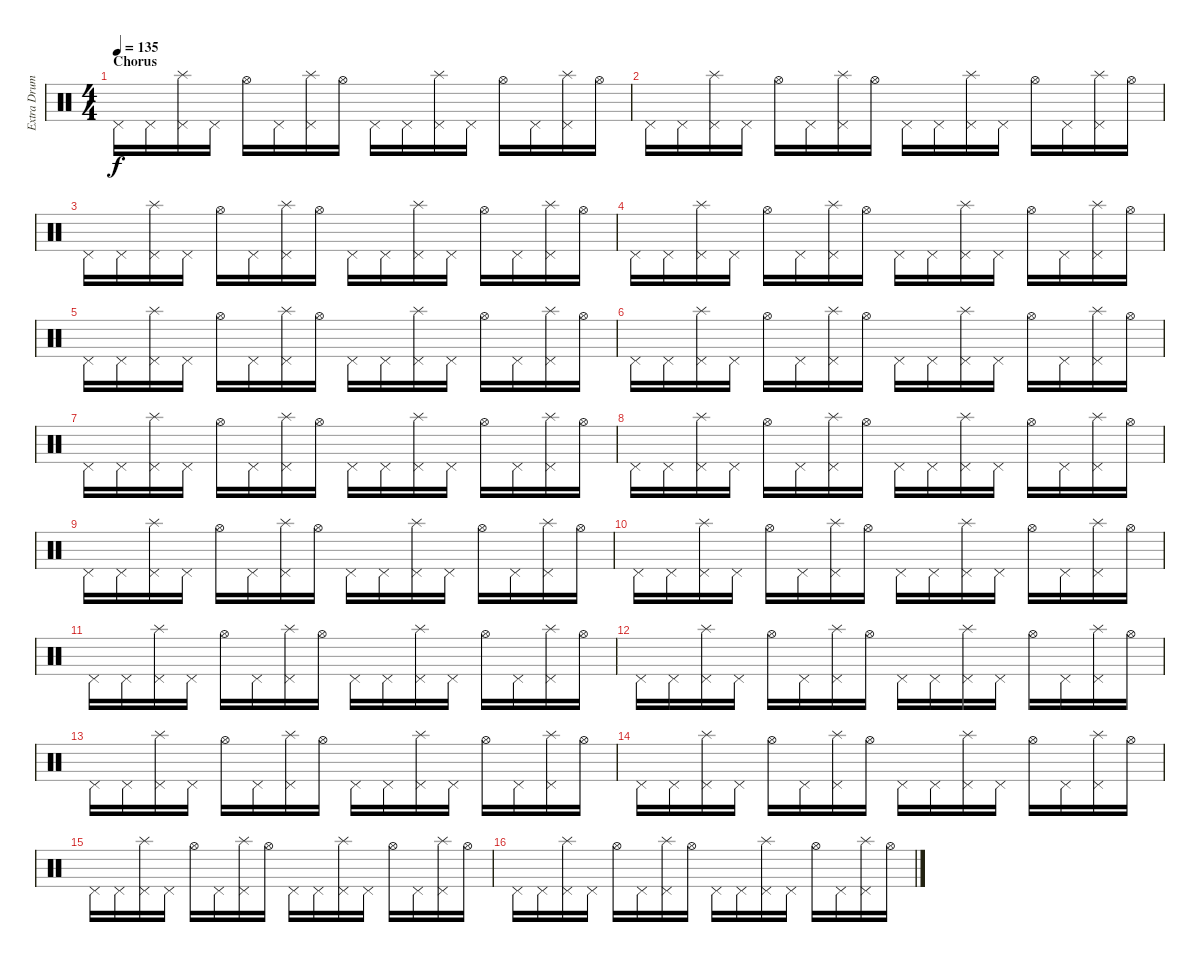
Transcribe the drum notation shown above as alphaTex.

\track ("Extra Drums" "Extra Drum") {instrument percussion}
\staff {score}
\articulation defaults
\ts (4 4)
\section ("" "Chorus")
\tempo 135
\clef neutral
\ks c "Pedal Hi-Hat (hit)".16{dy f} "Pedal Hi-Hat (hit)".16
("Pedal Hi-Hat (hit)" "Splash (hit)").16 "Pedal Hi-Hat (hit)".16 "Hi-Hat (open)".16 "Pedal Hi-Hat (hit)".16 ("Pedal Hi-Hat (hit)" "Splash (hit)").16 "Hi-Hat (open)".16 "Pedal Hi-Hat (hit)".16 "Pedal Hi-Hat (hit)".16 ("Pedal Hi-Hat (hit)" "Splash (hit)").16 "Pedal Hi-Hat (hit)".16 "Hi-Hat (open)".16 "Pedal Hi-Hat (hit)".16 ("Pedal Hi-Hat (hit)" "Splash (hit)").16 "Hi-Hat (open)".16 |
"Pedal Hi-Hat (hit)".16 "Pedal Hi-Hat (hit)".16 ("Pedal Hi-Hat (hit)" "Splash (hit)").16 "Pedal Hi-Hat (hit)".16 "Hi-Hat (open)".16 "Pedal Hi-Hat (hit)".16 ("Pedal Hi-Hat (hit)" "Splash (hit)").16 "Hi-Hat (open)".16 "Pedal Hi-Hat (hit)".16 "Pedal Hi-Hat (hit)".16 ("Pedal Hi-Hat (hit)" "Splash (hit)").16 "Pedal Hi-Hat (hit)".16 "Hi-Hat (open)".16 "Pedal Hi-Hat (hit)".16 ("Pedal Hi-Hat (hit)" "Splash (hit)").16 "Hi-Hat (open)".16 |
"Pedal Hi-Hat (hit)".16 "Pedal Hi-Hat (hit)".16 ("Pedal Hi-Hat (hit)" "Splash (hit)").16 "Pedal Hi-Hat (hit)".16 "Hi-Hat (open)".16 "Pedal Hi-Hat (hit)".16 ("Pedal Hi-Hat (hit)" "Splash (hit)").16 "Hi-Hat (open)".16 "Pedal Hi-Hat (hit)".16 "Pedal Hi-Hat (hit)".16 ("Pedal Hi-Hat (hit)" "Splash (hit)").16 "Pedal Hi-Hat (hit)".16 "Hi-Hat (open)".16 "Pedal Hi-Hat (hit)".16 ("Pedal Hi-Hat (hit)" "Splash (hit)").16 "Hi-Hat (open)".16 |
"Pedal Hi-Hat (hit)".16 "Pedal Hi-Hat (hit)".16 ("Pedal Hi-Hat (hit)" "Splash (hit)").16 "Pedal Hi-Hat (hit)".16 "Hi-Hat (open)".16 "Pedal Hi-Hat (hit)".16 ("Pedal Hi-Hat (hit)" "Splash (hit)").16 "Hi-Hat (open)".16 "Pedal Hi-Hat (hit)".16 "Pedal Hi-Hat (hit)".16 ("Pedal Hi-Hat (hit)" "Splash (hit)").16 "Pedal Hi-Hat (hit)".16 "Hi-Hat (open)".16 "Pedal Hi-Hat (hit)".16 ("Pedal Hi-Hat (hit)" "Splash (hit)").16 "Hi-Hat (open)".16 |
"Pedal Hi-Hat (hit)".16 "Pedal Hi-Hat (hit)".16 ("Pedal Hi-Hat (hit)" "Splash (hit)").16 "Pedal Hi-Hat (hit)".16 "Hi-Hat (open)".16 "Pedal Hi-Hat (hit)".16 ("Pedal Hi-Hat (hit)" "Splash (hit)").16 "Hi-Hat (open)".16 "Pedal Hi-Hat (hit)".16 "Pedal Hi-Hat (hit)".16 ("Pedal Hi-Hat (hit)" "Splash (hit)").16 "Pedal Hi-Hat (hit)".16 "Hi-Hat (open)".16 "Pedal Hi-Hat (hit)".16 ("Pedal Hi-Hat (hit)" "Splash (hit)").16 "Hi-Hat (open)".16 |
"Pedal Hi-Hat (hit)".16 "Pedal Hi-Hat (hit)".16 ("Pedal Hi-Hat (hit)" "Splash (hit)").16 "Pedal Hi-Hat (hit)".16 "Hi-Hat (open)".16 "Pedal Hi-Hat (hit)".16 ("Pedal Hi-Hat (hit)" "Splash (hit)").16 "Hi-Hat (open)".16 "Pedal Hi-Hat (hit)".16 "Pedal Hi-Hat (hit)".16 ("Pedal Hi-Hat (hit)" "Splash (hit)").16 "Pedal Hi-Hat (hit)".16 "Hi-Hat (open)".16 "Pedal Hi-Hat (hit)".16 ("Pedal Hi-Hat (hit)" "Splash (hit)").16 "Hi-Hat (open)".16 |
"Pedal Hi-Hat (hit)".16 "Pedal Hi-Hat (hit)".16 ("Pedal Hi-Hat (hit)" "Splash (hit)").16 "Pedal Hi-Hat (hit)".16 "Hi-Hat (open)".16 "Pedal Hi-Hat (hit)".16 ("Pedal Hi-Hat (hit)" "Splash (hit)").16 "Hi-Hat (open)".16 "Pedal Hi-Hat (hit)".16 "Pedal Hi-Hat (hit)".16 ("Pedal Hi-Hat (hit)" "Splash (hit)").16 "Pedal Hi-Hat (hit)".16 "Hi-Hat (open)".16 "Pedal Hi-Hat (hit)".16 ("Pedal Hi-Hat (hit)" "Splash (hit)").16 "Hi-Hat (open)".16 |
"Pedal Hi-Hat (hit)".16 "Pedal Hi-Hat (hit)".16 ("Pedal Hi-Hat (hit)" "Splash (hit)").16 "Pedal Hi-Hat (hit)".16 "Hi-Hat (open)".16 "Pedal Hi-Hat (hit)".16 ("Pedal Hi-Hat (hit)" "Splash (hit)").16 "Hi-Hat (open)".16 "Pedal Hi-Hat (hit)".16 "Pedal Hi-Hat (hit)".16 ("Pedal Hi-Hat (hit)" "Splash (hit)").16 "Pedal Hi-Hat (hit)".16 "Hi-Hat (open)".16 "Pedal Hi-Hat (hit)".16 ("Pedal Hi-Hat (hit)" "Splash (hit)").16 "Hi-Hat (open)".16 |
"Pedal Hi-Hat (hit)".16 "Pedal Hi-Hat (hit)".16 ("Pedal Hi-Hat (hit)" "Splash (hit)").16 "Pedal Hi-Hat (hit)".16 "Hi-Hat (open)".16 "Pedal Hi-Hat (hit)".16 ("Pedal Hi-Hat (hit)" "Splash (hit)").16 "Hi-Hat (open)".16 "Pedal Hi-Hat (hit)".16 "Pedal Hi-Hat (hit)".16 ("Pedal Hi-Hat (hit)" "Splash (hit)").16 "Pedal Hi-Hat (hit)".16 "Hi-Hat (open)".16 "Pedal Hi-Hat (hit)".16 ("Pedal Hi-Hat (hit)" "Splash (hit)").16 "Hi-Hat (open)".16 |
"Pedal Hi-Hat (hit)".16 "Pedal Hi-Hat (hit)".16 ("Pedal Hi-Hat (hit)" "Splash (hit)").16 "Pedal Hi-Hat (hit)".16 "Hi-Hat (open)".16 "Pedal Hi-Hat (hit)".16 ("Pedal Hi-Hat (hit)" "Splash (hit)").16 "Hi-Hat (open)".16 "Pedal Hi-Hat (hit)".16 "Pedal Hi-Hat (hit)".16 ("Pedal Hi-Hat (hit)" "Splash (hit)").16 "Pedal Hi-Hat (hit)".16 "Hi-Hat (open)".16 "Pedal Hi-Hat (hit)".16 ("Pedal Hi-Hat (hit)" "Splash (hit)").16 "Hi-Hat (open)".16 |
"Pedal Hi-Hat (hit)".16 "Pedal Hi-Hat (hit)".16 ("Pedal Hi-Hat (hit)" "Splash (hit)").16 "Pedal Hi-Hat (hit)".16 "Hi-Hat (open)".16 "Pedal Hi-Hat (hit)".16 ("Pedal Hi-Hat (hit)" "Splash (hit)").16 "Hi-Hat (open)".16 "Pedal Hi-Hat (hit)".16 "Pedal Hi-Hat (hit)".16 ("Pedal Hi-Hat (hit)" "Splash (hit)").16 "Pedal Hi-Hat (hit)".16 "Hi-Hat (open)".16 "Pedal Hi-Hat (hit)".16 ("Pedal Hi-Hat (hit)" "Splash (hit)").16 "Hi-Hat (open)".16 |
"Pedal Hi-Hat (hit)".16 "Pedal Hi-Hat (hit)".16 ("Pedal Hi-Hat (hit)" "Splash (hit)").16 "Pedal Hi-Hat (hit)".16 "Hi-Hat (open)".16 "Pedal Hi-Hat (hit)".16 ("Pedal Hi-Hat (hit)" "Splash (hit)").16 "Hi-Hat (open)".16 "Pedal Hi-Hat (hit)".16 "Pedal Hi-Hat (hit)".16 ("Pedal Hi-Hat (hit)" "Splash (hit)").16 "Pedal Hi-Hat (hit)".16 "Hi-Hat (open)".16 "Pedal Hi-Hat (hit)".16 ("Pedal Hi-Hat (hit)" "Splash (hit)").16 "Hi-Hat (open)".16 |
"Pedal Hi-Hat (hit)".16 "Pedal Hi-Hat (hit)".16 ("Pedal Hi-Hat (hit)" "Splash (hit)").16 "Pedal Hi-Hat (hit)".16 "Hi-Hat (open)".16 "Pedal Hi-Hat (hit)".16 ("Pedal Hi-Hat (hit)" "Splash (hit)").16 "Hi-Hat (open)".16 "Pedal Hi-Hat (hit)".16 "Pedal Hi-Hat (hit)".16 ("Pedal Hi-Hat (hit)" "Splash (hit)").16 "Pedal Hi-Hat (hit)".16 "Hi-Hat (open)".16 "Pedal Hi-Hat (hit)".16 ("Pedal Hi-Hat (hit)" "Splash (hit)").16 "Hi-Hat (open)".16 |
"Pedal Hi-Hat (hit)".16 "Pedal Hi-Hat (hit)".16 ("Pedal Hi-Hat (hit)" "Splash (hit)").16 "Pedal Hi-Hat (hit)".16 "Hi-Hat (open)".16 "Pedal Hi-Hat (hit)".16 ("Pedal Hi-Hat (hit)" "Splash (hit)").16 "Hi-Hat (open)".16 "Pedal Hi-Hat (hit)".16 "Pedal Hi-Hat (hit)".16 ("Pedal Hi-Hat (hit)" "Splash (hit)").16 "Pedal Hi-Hat (hit)".16 "Hi-Hat (open)".16 "Pedal Hi-Hat (hit)".16 ("Pedal Hi-Hat (hit)" "Splash (hit)").16 "Hi-Hat (open)".16 |
"Pedal Hi-Hat (hit)".16 "Pedal Hi-Hat (hit)".16 ("Pedal Hi-Hat (hit)" "Splash (hit)").16 "Pedal Hi-Hat (hit)".16 "Hi-Hat (open)".16 "Pedal Hi-Hat (hit)".16 ("Pedal Hi-Hat (hit)" "Splash (hit)").16 "Hi-Hat (open)".16 "Pedal Hi-Hat (hit)".16 "Pedal Hi-Hat (hit)".16 ("Pedal Hi-Hat (hit)" "Splash (hit)").16 "Pedal Hi-Hat (hit)".16 "Hi-Hat (open)".16 "Pedal Hi-Hat (hit)".16 ("Pedal Hi-Hat (hit)" "Splash (hit)").16 "Hi-Hat (open)".16 |
"Pedal Hi-Hat (hit)".16 "Pedal Hi-Hat (hit)".16 ("Pedal Hi-Hat (hit)" "Splash (hit)").16 "Pedal Hi-Hat (hit)".16 "Hi-Hat (open)".16 "Pedal Hi-Hat (hit)".16 ("Pedal Hi-Hat (hit)" "Splash (hit)").16 "Hi-Hat (open)".16 "Pedal Hi-Hat (hit)".16 "Pedal Hi-Hat (hit)".16 ("Pedal Hi-Hat (hit)" "Splash (hit)").16 "Pedal Hi-Hat (hit)".16 "Hi-Hat (open)".16 "Pedal Hi-Hat (hit)".16 ("Pedal Hi-Hat (hit)" "Splash (hit)").16 "Hi-Hat (open)".16
